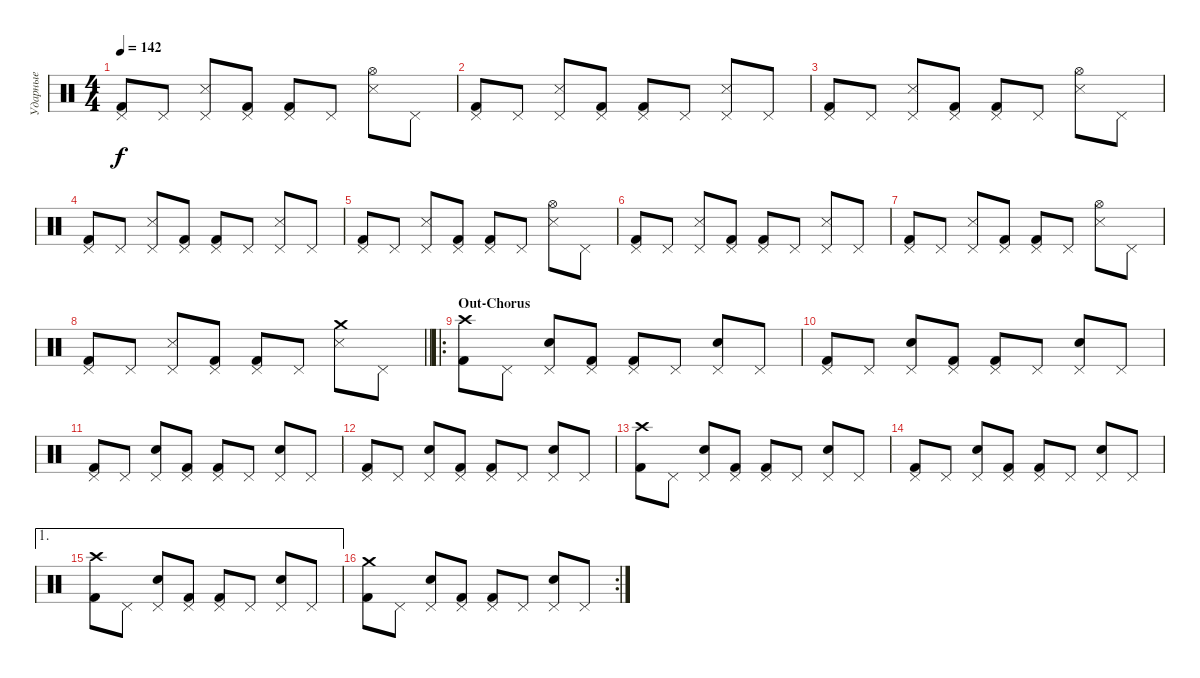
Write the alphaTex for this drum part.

\track ("Ударные" "Ударные") {instrument percussion}
\staff {score}
\articulation defaults
\ts (4 4)
\tempo 142
\clef neutral
\ks c
("Pedal Hi-Hat (hit)" "Kick (hit) 2").8{dy f} "Pedal Hi-Hat (hit)".8 ("Pedal Hi-Hat (hit)" "Snare (side stick) 3").8 ("Pedal Hi-Hat (hit)" "Kick (hit) 2").8 ("Pedal Hi-Hat (hit)" "Kick (hit) 2").8 "Pedal Hi-Hat (hit)".8 ("Hi-Hat (open)" "Snare (side stick) 3").8 "Pedal Hi-Hat (hit)".8 |
("Pedal Hi-Hat (hit)" "Kick (hit) 2").8 "Pedal Hi-Hat (hit)".8 ("Pedal Hi-Hat (hit)" "Snare (side stick) 3").8 ("Pedal Hi-Hat (hit)" "Kick (hit) 2").8 ("Pedal Hi-Hat (hit)" "Kick (hit) 2").8 "Pedal Hi-Hat (hit)".8 ("Pedal Hi-Hat (hit)" "Snare (side stick) 3").8 "Pedal Hi-Hat (hit)".8 |
("Pedal Hi-Hat (hit)" "Kick (hit) 2").8 "Pedal Hi-Hat (hit)".8 ("Pedal Hi-Hat (hit)" "Snare (side stick) 3").8 ("Pedal Hi-Hat (hit)" "Kick (hit) 2").8 ("Pedal Hi-Hat (hit)" "Kick (hit) 2").8 "Pedal Hi-Hat (hit)".8 ("Hi-Hat (open)" "Snare (side stick) 3").8 "Pedal Hi-Hat (hit)".8 |
("Pedal Hi-Hat (hit)" "Kick (hit) 2").8 "Pedal Hi-Hat (hit)".8 ("Pedal Hi-Hat (hit)" "Snare (side stick) 3").8 ("Pedal Hi-Hat (hit)" "Kick (hit) 2").8 ("Pedal Hi-Hat (hit)" "Kick (hit) 2").8 "Pedal Hi-Hat (hit)".8 ("Pedal Hi-Hat (hit)" "Snare (side stick) 3").8 "Pedal Hi-Hat (hit)".8 |
("Pedal Hi-Hat (hit)" "Kick (hit) 2").8 "Pedal Hi-Hat (hit)".8 ("Pedal Hi-Hat (hit)" "Snare (side stick) 3").8 ("Pedal Hi-Hat (hit)" "Kick (hit) 2").8 ("Pedal Hi-Hat (hit)" "Kick (hit) 2").8 "Pedal Hi-Hat (hit)".8 ("Hi-Hat (open)" "Snare (side stick) 3").8 "Pedal Hi-Hat (hit)".8 |
("Pedal Hi-Hat (hit)" "Kick (hit) 2").8 "Pedal Hi-Hat (hit)".8 ("Pedal Hi-Hat (hit)" "Snare (side stick) 3").8 ("Pedal Hi-Hat (hit)" "Kick (hit) 2").8 ("Pedal Hi-Hat (hit)" "Kick (hit) 2").8 "Pedal Hi-Hat (hit)".8 ("Pedal Hi-Hat (hit)" "Snare (side stick) 3").8 "Pedal Hi-Hat (hit)".8 |
("Pedal Hi-Hat (hit)" "Kick (hit) 2").8 "Pedal Hi-Hat (hit)".8 ("Pedal Hi-Hat (hit)" "Snare (side stick) 3").8 ("Pedal Hi-Hat (hit)" "Kick (hit) 2").8 ("Pedal Hi-Hat (hit)" "Kick (hit) 2").8 "Pedal Hi-Hat (hit)".8 ("Hi-Hat (open)" "Snare (side stick) 3").8 "Pedal Hi-Hat (hit)".8 |
\barLineRight lightlight
("Pedal Hi-Hat (hit)" "Kick (hit) 2").8 "Pedal Hi-Hat (hit)".8 ("Pedal Hi-Hat (hit)" "Snare (side stick) 3").8 ("Pedal Hi-Hat (hit)" "Kick (hit) 2").8 ("Pedal Hi-Hat (hit)" "Kick (hit) 2").8 "Pedal Hi-Hat (hit)".8 ("Crash medium (hit)" "Snare (side stick) 3").8 "Pedal Hi-Hat (hit)".8 |
\ro
\section ("" "Out-Chorus")
("Crash high (hit)" "Kick (hit) 2").8 "Pedal Hi-Hat (hit)".8 ("Pedal Hi-Hat (hit)" "Snare (hit) 2").8 ("Pedal Hi-Hat (hit)" "Kick (hit) 2").8 ("Pedal Hi-Hat (hit)" "Kick (hit) 2").8 "Pedal Hi-Hat (hit)".8 ("Pedal Hi-Hat (hit)" "Snare (hit) 2").8 "Pedal Hi-Hat (hit)".8 |
("Pedal Hi-Hat (hit)" "Kick (hit) 2").8 "Pedal Hi-Hat (hit)".8 ("Pedal Hi-Hat (hit)" "Snare (hit) 2").8 ("Pedal Hi-Hat (hit)" "Kick (hit) 2").8 ("Pedal Hi-Hat (hit)" "Kick (hit) 2").8 "Pedal Hi-Hat (hit)".8 ("Pedal Hi-Hat (hit)" "Snare (hit) 2").8 "Pedal Hi-Hat (hit)".8 |
("Pedal Hi-Hat (hit)" "Kick (hit) 2").8 "Pedal Hi-Hat (hit)".8 ("Pedal Hi-Hat (hit)" "Snare (hit) 2").8 ("Pedal Hi-Hat (hit)" "Kick (hit) 2").8 ("Pedal Hi-Hat (hit)" "Kick (hit) 2").8 "Pedal Hi-Hat (hit)".8 ("Pedal Hi-Hat (hit)" "Snare (hit) 2").8 "Pedal Hi-Hat (hit)".8 |
("Pedal Hi-Hat (hit)" "Kick (hit) 2").8 "Pedal Hi-Hat (hit)".8 ("Pedal Hi-Hat (hit)" "Snare (hit) 2").8 ("Pedal Hi-Hat (hit)" "Kick (hit) 2").8 ("Pedal Hi-Hat (hit)" "Kick (hit) 2").8 "Pedal Hi-Hat (hit)".8 ("Pedal Hi-Hat (hit)" "Snare (hit) 2").8 "Pedal Hi-Hat (hit)".8 |
("Crash high (hit)" "Kick (hit) 2").8 "Pedal Hi-Hat (hit)".8 ("Pedal Hi-Hat (hit)" "Snare (hit) 2").8 ("Pedal Hi-Hat (hit)" "Kick (hit) 2").8 ("Pedal Hi-Hat (hit)" "Kick (hit) 2").8 "Pedal Hi-Hat (hit)".8 ("Pedal Hi-Hat (hit)" "Snare (hit) 2").8 "Pedal Hi-Hat (hit)".8 |
("Pedal Hi-Hat (hit)" "Kick (hit) 2").8 "Pedal Hi-Hat (hit)".8 ("Pedal Hi-Hat (hit)" "Snare (hit) 2").8 ("Pedal Hi-Hat (hit)" "Kick (hit) 2").8 ("Pedal Hi-Hat (hit)" "Kick (hit) 2").8 "Pedal Hi-Hat (hit)".8 ("Pedal Hi-Hat (hit)" "Snare (hit) 2").8 "Pedal Hi-Hat (hit)".8 |
\ae 1
("Crash high (hit)" "Kick (hit) 2").8 "Pedal Hi-Hat (hit)".8 ("Pedal Hi-Hat (hit)" "Snare (hit) 2").8 ("Pedal Hi-Hat (hit)" "Kick (hit) 2").8 ("Pedal Hi-Hat (hit)" "Kick (hit) 2").8 "Pedal Hi-Hat (hit)".8 ("Pedal Hi-Hat (hit)" "Snare (hit) 2").8 "Pedal Hi-Hat (hit)".8 |
\rc 2
("Crash medium (hit)" "Kick (hit) 2").8 "Pedal Hi-Hat (hit)".8 ("Pedal Hi-Hat (hit)" "Snare (hit) 2").8 ("Pedal Hi-Hat (hit)" "Kick (hit) 2").8 ("Pedal Hi-Hat (hit)" "Kick (hit) 2").8 "Pedal Hi-Hat (hit)".8 ("Pedal Hi-Hat (hit)" "Snare (hit) 2").8 "Pedal Hi-Hat (hit)".8
